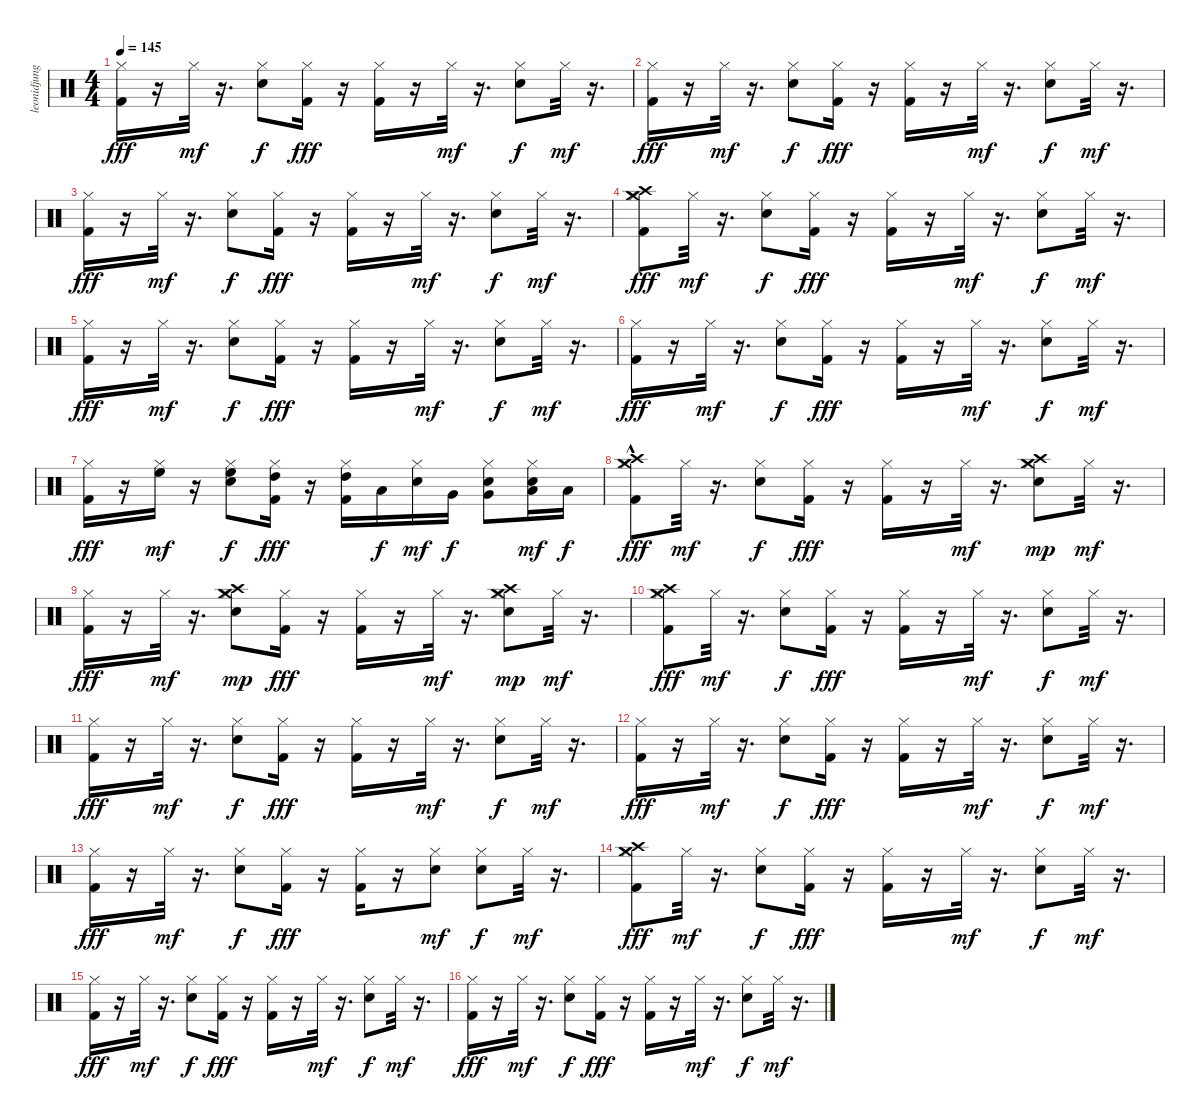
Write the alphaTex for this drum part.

\track ("leonidjung@freenet.de" "leonidjung") {instrument percussion}
\staff {score}
\articulation defaults
\ts (4 4)
\tempo 145
\clef neutral
\ks c
("Hi-Hat (closed)" "Kick (hit) 2").16{dy fff} r.16 "Hi-Hat (closed)".32{dy mf} r.16{d} ("Snare (hit) 2" "Hi-Hat (closed)").8{dy f} ("Hi-Hat (closed)" "Kick (hit) 2").16{dy fff} r.16 ("Hi-Hat (closed)" "Kick (hit) 2").16 r.16 "Hi-Hat (closed)".32{dy mf} r.16{d} ("Snare (hit) 2" "Hi-Hat (closed)").8{dy f} "Hi-Hat (closed)".32{dy mf} r.16{d} |
("Hi-Hat (closed)" "Kick (hit) 2").16{dy fff} r.16 "Hi-Hat (closed)".32{dy mf} r.16{d} ("Snare (hit) 2" "Hi-Hat (closed)").8{dy f} ("Hi-Hat (closed)" "Kick (hit) 2").16{dy fff} r.16 ("Hi-Hat (closed)" "Kick (hit) 2").16 r.16 "Hi-Hat (closed)".32{dy mf} r.16{d} ("Snare (hit) 2" "Hi-Hat (closed)").8{dy f} "Hi-Hat (closed)".32{dy mf} r.16{d} |
("Hi-Hat (closed)" "Kick (hit) 2").16{dy fff} r.16 "Hi-Hat (closed)".32{dy mf} r.16{d} ("Snare (hit) 2" "Hi-Hat (closed)").8{dy f} ("Hi-Hat (closed)" "Kick (hit) 2").16{dy fff} r.16 ("Hi-Hat (closed)" "Kick (hit) 2").16 r.16 "Hi-Hat (closed)".32{dy mf} r.16{d} ("Snare (hit) 2" "Hi-Hat (closed)").8{dy f} "Hi-Hat (closed)".32{dy mf} r.16{d} |
("Hi-Hat (closed)" "Crash high (hit)" "Crash medium (hit)" "Kick (hit) 2").8{dy fff} "Hi-Hat (closed)".32{dy mf} r.16{d} ("Snare (hit) 2" "Hi-Hat (closed)").8{dy f} ("Hi-Hat (closed)" "Kick (hit) 2").16{dy fff} r.16 ("Hi-Hat (closed)" "Kick (hit) 2").16 r.16 "Hi-Hat (closed)".32{dy mf} r.16{d} ("Snare (hit) 2" "Hi-Hat (closed)").8{dy f} "Hi-Hat (closed)".32{dy mf} r.16{d} |
("Hi-Hat (closed)" "Kick (hit) 2").16{dy fff} r.16 "Hi-Hat (closed)".32{dy mf} r.16{d} ("Snare (hit) 2" "Hi-Hat (closed)").8{dy f} ("Hi-Hat (closed)" "Kick (hit) 2").16{dy fff} r.16 ("Hi-Hat (closed)" "Kick (hit) 2").16 r.16 "Hi-Hat (closed)".32{dy mf} r.16{d} ("Snare (hit) 2" "Hi-Hat (closed)").8{dy f} "Hi-Hat (closed)".32{dy mf} r.16{d} |
("Hi-Hat (closed)" "Kick (hit) 2").16{dy fff} r.16 "Hi-Hat (closed)".32{dy mf} r.16{d} ("Snare (hit) 2" "Hi-Hat (closed)").8{dy f} ("Hi-Hat (closed)" "Kick (hit) 2").16{dy fff} r.16 ("Hi-Hat (closed)" "Kick (hit) 2").16 r.16 "Hi-Hat (closed)".32{dy mf} r.16{d} ("Snare (hit) 2" "Hi-Hat (closed)").8{dy f} "Hi-Hat (closed)".32{dy mf} r.16{d} |
("Hi-Hat (closed)" "Kick (hit) 2").16{dy fff} r.16 ("High Floor Tom (hit)" "Hi-Hat (closed)").16{dy mf} r.16 ("High Floor Tom (hit)" "Snare (hit) 2" "Hi-Hat (closed)").8{dy f} ("High Tom (hit)" "Hi-Hat (closed)" "Kick (hit) 2").16{dy fff} r.16 ("High Tom (hit)" "Hi-Hat (closed)" "Kick (hit) 2").16 "Low Tom (hit)".16{dy f} ("Snare (hit) 2" "Hi-Hat (closed)").16{dy mf} "Very Low Tom (hit)".16{dy f} ("Very Low Tom (hit)" "Snare (hit) 2" "Hi-Hat (closed)").8 ("Low Floor Tom (hit)" "Snare (hit) 2" "Hi-Hat (closed)").16{dy mf} "Low Floor Tom (hit)".16{dy f} |
("Hi-Hat (closed)" "Crash high (hit)"{hac} "Crash medium (hit)"{hac} "Kick (hit) 2").8{dy fff} "Hi-Hat (closed)".32{dy mf} r.16{d} ("Snare (hit) 2" "Hi-Hat (closed)").8{dy f} ("Hi-Hat (closed)" "Kick (hit) 2").16{dy fff} r.16 ("Hi-Hat (closed)" "Kick (hit) 2").16 r.16 "Hi-Hat (closed)".32{dy mf} r.16{d} ("Snare (hit) 2" "Hi-Hat (closed)" "Crash high (hit)" "Crash medium (hit)").8{dy mp} "Hi-Hat (closed)".32{dy mf} r.16{d} |
("Hi-Hat (closed)" "Kick (hit) 2").16{dy fff} r.16 "Hi-Hat (closed)".32{dy mf} r.16{d} ("Snare (hit) 2" "Hi-Hat (closed)" "Crash high (hit)" "Crash medium (hit)").8{dy mp} ("Hi-Hat (closed)" "Kick (hit) 2").16{dy fff} r.16 ("Hi-Hat (closed)" "Kick (hit) 2").16 r.16 "Hi-Hat (closed)".32{dy mf} r.16{d} ("Snare (hit) 2" "Hi-Hat (closed)" "Crash high (hit)" "Crash medium (hit)").8{dy mp} "Hi-Hat (closed)".32{dy mf} r.16{d} |
("Hi-Hat (closed)" "Crash high (hit)" "Crash medium (hit)" "Kick (hit) 2").8{dy fff} "Hi-Hat (closed)".32{dy mf} r.16{d} ("Snare (hit) 2" "Hi-Hat (closed)").8{dy f} ("Hi-Hat (closed)" "Kick (hit) 2").16{dy fff} r.16 ("Hi-Hat (closed)" "Kick (hit) 2").16 r.16 "Hi-Hat (closed)".32{dy mf} r.16{d} ("Snare (hit) 2" "Hi-Hat (closed)").8{dy f} "Hi-Hat (closed)".32{dy mf} r.16{d} |
("Hi-Hat (closed)" "Kick (hit) 2").16{dy fff} r.16 "Hi-Hat (closed)".32{dy mf} r.16{d} ("Snare (hit) 2" "Hi-Hat (closed)").8{dy f} ("Hi-Hat (closed)" "Kick (hit) 2").16{dy fff} r.16 ("Hi-Hat (closed)" "Kick (hit) 2").16 r.16 "Hi-Hat (closed)".32{dy mf} r.16{d} ("Snare (hit) 2" "Hi-Hat (closed)").8{dy f} "Hi-Hat (closed)".32{dy mf} r.16{d} |
("Hi-Hat (closed)" "Kick (hit) 2").16{dy fff} r.16 "Hi-Hat (closed)".32{dy mf} r.16{d} ("Snare (hit) 2" "Hi-Hat (closed)").8{dy f} ("Hi-Hat (closed)" "Kick (hit) 2").16{dy fff} r.16 ("Hi-Hat (closed)" "Kick (hit) 2").16 r.16 "Hi-Hat (closed)".32{dy mf} r.16{d} ("Snare (hit) 2" "Hi-Hat (closed)").8{dy f} "Hi-Hat (closed)".32{dy mf} r.16{d} |
("Hi-Hat (closed)" "Kick (hit) 2").16{dy fff} r.16 "Hi-Hat (closed)".32{dy mf} r.16{d} ("Snare (hit) 2" "Hi-Hat (closed)").8{dy f} ("Hi-Hat (closed)" "Kick (hit) 2").16{dy fff} r.16 ("Hi-Hat (closed)" "Kick (hit) 2").16 r.16 ("Snare (hit) 2" "Hi-Hat (closed)").8{dy mf} ("Snare (hit) 2" "Hi-Hat (closed)").8{dy f} "Hi-Hat (closed)".32{dy mf} r.16{d} |
("Hi-Hat (closed)" "Crash high (hit)" "Crash medium (hit)" "Kick (hit) 2").8{dy fff} "Hi-Hat (closed)".32{dy mf} r.16{d} ("Snare (hit) 2" "Hi-Hat (closed)").8{dy f} ("Hi-Hat (closed)" "Kick (hit) 2").16{dy fff} r.16 ("Hi-Hat (closed)" "Kick (hit) 2").16 r.16 "Hi-Hat (closed)".32{dy mf} r.16{d} ("Snare (hit) 2" "Hi-Hat (closed)").8{dy f} "Hi-Hat (closed)".32{dy mf} r.16{d} |
("Hi-Hat (closed)" "Kick (hit) 2").16{dy fff} r.16 "Hi-Hat (closed)".32{dy mf} r.16{d} ("Snare (hit) 2" "Hi-Hat (closed)").8{dy f} ("Hi-Hat (closed)" "Kick (hit) 2").16{dy fff} r.16 ("Hi-Hat (closed)" "Kick (hit) 2").16 r.16 "Hi-Hat (closed)".32{dy mf} r.16{d} ("Snare (hit) 2" "Hi-Hat (closed)").8{dy f} "Hi-Hat (closed)".32{dy mf} r.16{d} |
("Hi-Hat (closed)" "Kick (hit) 2").16{dy fff} r.16 "Hi-Hat (closed)".32{dy mf} r.16{d} ("Snare (hit) 2" "Hi-Hat (closed)").8{dy f} ("Hi-Hat (closed)" "Kick (hit) 2").16{dy fff} r.16 ("Hi-Hat (closed)" "Kick (hit) 2").16 r.16 "Hi-Hat (closed)".32{dy mf} r.16{d} ("Snare (hit) 2" "Hi-Hat (closed)").8{dy f} "Hi-Hat (closed)".32{dy mf} r.16{d}
